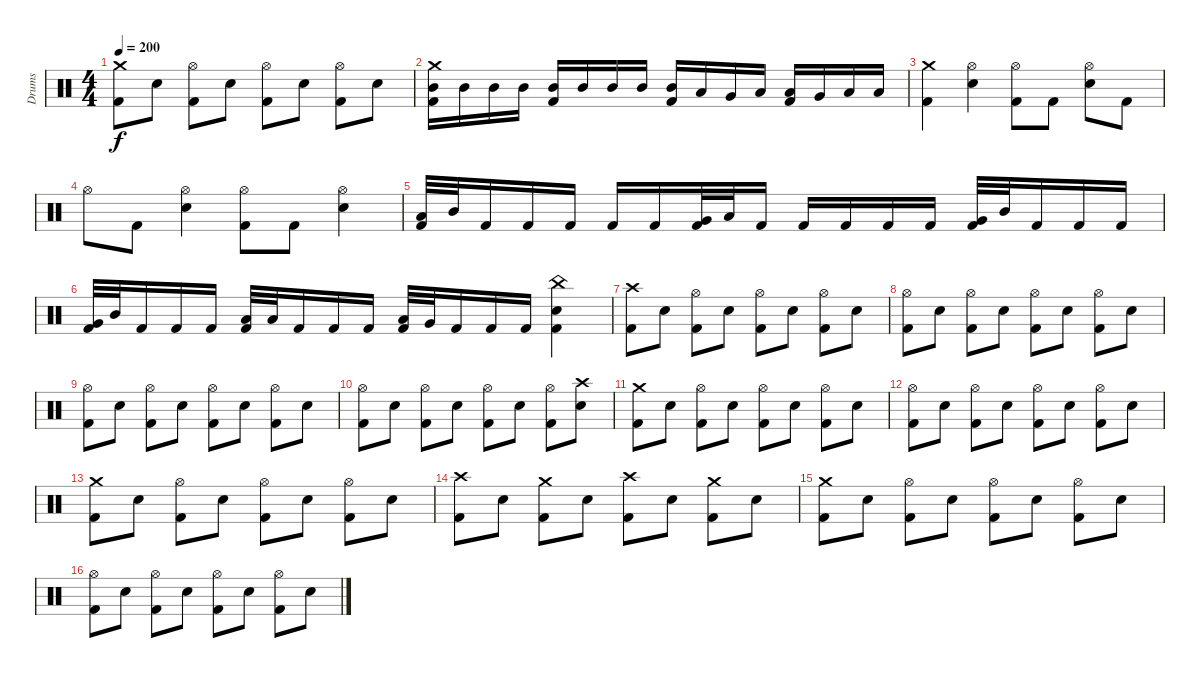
\track ("Drums" "Drums") {instrument percussion}
\staff {score}
\articulation defaults
\ts (4 4)
\tempo 200
\clef neutral
\ks c
("Crash medium (hit)" "Kick (hit) 2").8{dy f} "Electric Snare (hit)".8 ("Hi-Hat (open)" "Kick (hit) 2").8 "Electric Snare (hit)".8 ("Hi-Hat (open)" "Kick (hit) 2").8 "Electric Snare (hit)".8 ("Hi-Hat (open)" "Kick (hit) 2").8 "Electric Snare (hit)".8 |
("Crash medium (hit)" "Mid Tom (hit)" "Kick (hit) 2").16 "Mid Tom (hit)".16 "Mid Tom (hit)".16 "Mid Tom (hit)".16 ("Mid Tom (hit)" "Kick (hit) 2").16 "Mid Tom (hit)".16 "Mid Tom (hit)".16 "Mid Tom (hit)".16 ("Mid Tom (hit)" "Kick (hit) 2").16 "Low Tom (hit)".16 "Very Low Tom (hit)".16 "Low Floor Tom (hit)".16 ("Low Tom (hit)" "Kick (hit) 2").16 "Very Low Tom (hit)".16 "Low Floor Tom (hit)".16 "Low Floor Tom (hit)".16 |
("Crash medium (hit)" "Kick (hit) 2").4 ("Hi-Hat (open)" "Electric Snare (hit)").4 ("Hi-Hat (open)" "Kick (hit) 2").8 "Kick (hit) 2".8 ("Hi-Hat (open)" "Electric Snare (hit)").8 "Kick (hit) 2".8 |
"Hi-Hat (open)".8 "Kick (hit) 2".8 ("Hi-Hat (open)" "Electric Snare (hit)").4 ("Hi-Hat (open)" "Kick (hit) 2").8 "Kick (hit) 2".8 ("Hi-Hat (open)" "Electric Snare (hit)").4 |
("Low Tom (hit)" "Kick (hit) 2").32 "Mid Tom (hit)".32 "Kick (hit) 2".16 "Kick (hit) 2".16 "Kick (hit) 2".16 "Kick (hit) 2".16 "Kick (hit) 2".16 ("Very Low Tom (hit)" "Kick (hit) 2").32 "Low Tom (hit)".32 "Kick (hit) 2".16 "Kick (hit) 2".16 "Kick (hit) 2".16 "Kick (hit) 2".16 "Kick (hit) 2".16 ("Very Low Tom (hit)" "Kick (hit) 2").32 "Mid Tom (hit)".32 "Kick (hit) 2".16 "Kick (hit) 2".16 "Kick (hit) 2".16 |
("Very Low Tom (hit)" "Kick (hit) 2").32 "Mid Tom (hit)".32 "Kick (hit) 2".16 "Kick (hit) 2".16 "Kick (hit) 2".16 ("Low Floor Tom (hit)" "Kick (hit) 2").32 "Low Tom (hit)".32 "Kick (hit) 2".16 "Kick (hit) 2".16 "Kick (hit) 2".16 ("Low Floor Tom (hit)" "Kick (hit) 2").32 "Very Low Tom (hit)".32 "Kick (hit) 2".16 "Kick (hit) 2".16 "Kick (hit) 2".16 ("China (hit)" "Electric Snare (hit)" "Kick (hit) 2").4 |
("Crash high (hit)" "Kick (hit) 2").8 "Electric Snare (hit)".8 ("Hi-Hat (open)" "Kick (hit) 2").8 "Electric Snare (hit)".8 ("Hi-Hat (open)" "Kick (hit) 2").8 "Electric Snare (hit)".8 ("Hi-Hat (open)" "Kick (hit) 2").8 "Electric Snare (hit)".8 |
("Hi-Hat (open)" "Kick (hit) 2").8 "Electric Snare (hit)".8 ("Hi-Hat (open)" "Kick (hit) 2").8 "Electric Snare (hit)".8 ("Hi-Hat (open)" "Kick (hit) 2").8 "Electric Snare (hit)".8 ("Hi-Hat (open)" "Kick (hit) 2").8 "Electric Snare (hit)".8 |
("Hi-Hat (open)" "Kick (hit) 2").8 "Electric Snare (hit)".8 ("Hi-Hat (open)" "Kick (hit) 2").8 "Electric Snare (hit)".8 ("Hi-Hat (open)" "Kick (hit) 2").8 "Electric Snare (hit)".8 ("Hi-Hat (open)" "Kick (hit) 2").8 "Electric Snare (hit)".8 |
("Hi-Hat (open)" "Kick (hit) 2").8 "Electric Snare (hit)".8 ("Hi-Hat (open)" "Kick (hit) 2").8 "Electric Snare (hit)".8 ("Hi-Hat (open)" "Kick (hit) 2").8 "Electric Snare (hit)".8 ("Hi-Hat (open)" "Kick (hit) 2").8 ("Crash high (hit)" "Electric Snare (hit)").8 |
("Crash medium (hit)" "Kick (hit) 2").8 "Electric Snare (hit)".8 ("Hi-Hat (open)" "Kick (hit) 2").8 "Electric Snare (hit)".8 ("Hi-Hat (open)" "Kick (hit) 2").8 "Electric Snare (hit)".8 ("Hi-Hat (open)" "Kick (hit) 2").8 "Electric Snare (hit)".8 |
("Hi-Hat (open)" "Kick (hit) 2").8 "Electric Snare (hit)".8 ("Hi-Hat (open)" "Kick (hit) 2").8 "Electric Snare (hit)".8 ("Hi-Hat (open)" "Kick (hit) 2").8 "Electric Snare (hit)".8 ("Hi-Hat (open)" "Kick (hit) 2").8 "Electric Snare (hit)".8 |
("Crash medium (hit)" "Kick (hit) 2").8 "Electric Snare (hit)".8 ("Hi-Hat (open)" "Kick (hit) 2").8 "Electric Snare (hit)".8 ("Hi-Hat (open)" "Kick (hit) 2").8 "Electric Snare (hit)".8 ("Hi-Hat (open)" "Kick (hit) 2").8 "Electric Snare (hit)".8 |
("Crash high (hit)" "Kick (hit) 2").8 "Electric Snare (hit)".8 ("Crash medium (hit)" "Kick (hit) 2").8 "Electric Snare (hit)".8 ("Crash high (hit)" "Kick (hit) 2").8 "Electric Snare (hit)".8 ("Crash medium (hit)" "Kick (hit) 2").8 "Electric Snare (hit)".8 |
("Crash medium (hit)" "Kick (hit) 2").8 "Electric Snare (hit)".8 ("Hi-Hat (open)" "Kick (hit) 2").8 "Electric Snare (hit)".8 ("Hi-Hat (open)" "Kick (hit) 2").8 "Electric Snare (hit)".8 ("Hi-Hat (open)" "Kick (hit) 2").8 "Electric Snare (hit)".8 |
("Hi-Hat (open)" "Kick (hit) 2").8 "Electric Snare (hit)".8 ("Hi-Hat (open)" "Kick (hit) 2").8 "Electric Snare (hit)".8 ("Hi-Hat (open)" "Kick (hit) 2").8 "Electric Snare (hit)".8 ("Hi-Hat (open)" "Kick (hit) 2").8 "Electric Snare (hit)".8
